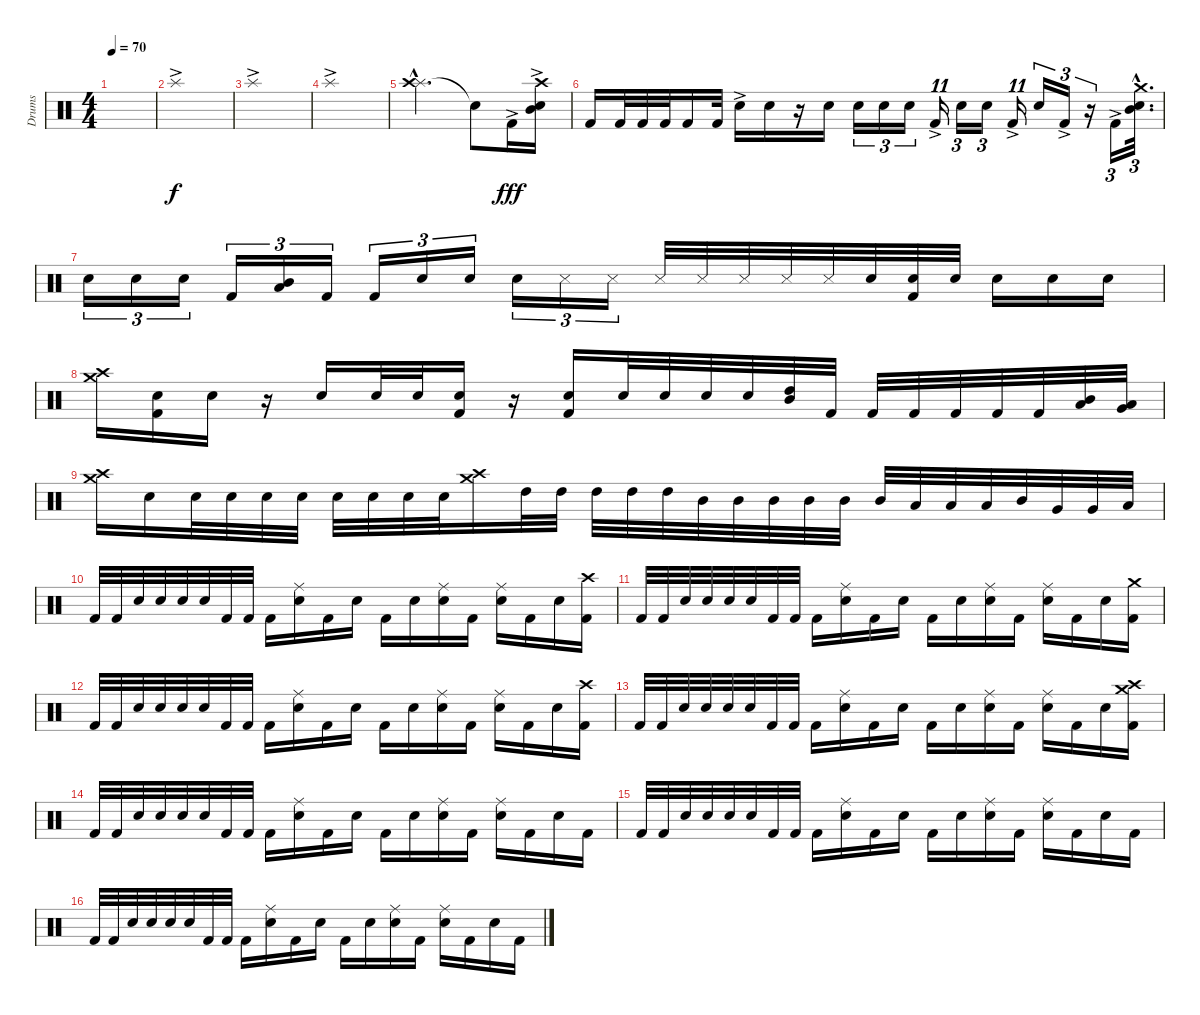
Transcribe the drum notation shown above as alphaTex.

\track ("Drums" "Drums") {instrument percussion}
\staff {score}
\articulation defaults
\ts (4 4)
\tempo 70
\clef neutral
\ks c
|
"Splash (hit)"{ac}.1 |
"Splash (hit)"{ac}.1 |
"Splash (hit)"{ac}.1 |
("Splash (hit)"{hac} "Crash high (hit)"{hac}).2{d} "Snare (hit)"{t}.8{dy f} "Kick (hit) 2"{ac}.16{dy fff} ("Crash high (hit)" "Mid Tom (hit)"{ac} "Snare (hit) 2"{ac}).16 |
"Kick (hit) 2".16 "Kick (hit) 2".32 "Kick (hit) 2".32 "Kick (hit) 2".32 "Kick (hit) 2".16 "Kick (hit) 2".32 "Snare (hit) 2"{ac}.16 "Snare (hit) 2".16 r.16 "Snare (hit) 2".16 "Snare (hit) 2".16{tu (3 2)} "Snare (hit) 2".16{tu (3 2)} "Snare (hit) 2".16{tu (3 2)} "Kick (hit) 2"{ac}.16{tu (11 8)} "Snare (hit) 2".16{tu (3 2)} "Snare (hit) 2".16{tu (3 2)} "Kick (hit) 2"{ac}.16{tu (11 8)} "Snare (hit) 2".16{tu (3 2)} "Kick (hit) 2"{ac}.16{tu (3 2)} r.16{tu (3 2)} "Kick (hit) 2"{ac}.16{tu (3 2)} ("Crash medium (hit)"{hac} "Mid Tom (hit)"{hac} "Snare (hit) 2"{hac}).32{d tu (3 2)} |
"Snare (hit) 2".16{tu (3 2)} "Snare (hit) 2".16{tu (3 2)} "Snare (hit) 2".16{tu (3 2)} "Kick (hit) 2".16{tu (3 2)} ("Low Tom (hit)" "Mid Tom (hit)").16{tu (3 2)} "Kick (hit) 2".16{tu (3 2)} "Kick (hit) 2".16{tu (3 2)} "Snare (hit) 2".16{tu (3 2)} "Snare (hit) 2".16{tu (3 2)} "Snare (hit) 2".16{tu (3 2)} "Snare (side stick) 3".16{tu (3 2)} "Snare (side stick) 3".16{tu (3 2)} "Snare (side stick) 3".32 "Snare (side stick) 3".32 "Snare (side stick) 3".32 "Snare (side stick) 3".32 "Snare (side stick) 3".32 "Snare (hit) 2".32 ("Snare (hit) 2" "Kick (hit) 2").32 "Snare (hit) 2".32 "Snare (hit) 2".16 "Snare (hit) 2".16 "Snare (hit) 2".16 |
("Crash high (hit)" "Crash medium (hit)").16 ("Snare (hit) 2" "Kick (hit) 2").16 "Snare (hit) 2".16 r.16 "Snare (hit) 2".16 "Snare (hit) 2".32 "Snare (hit) 2".32 ("Snare (hit) 2" "Kick (hit) 2").16 r.16 ("Snare (hit) 2" "Kick (hit) 2").16 "Snare (hit) 2".32 "Snare (hit) 2".32 "Snare (hit) 2".32 "Snare (hit) 2".32 ("High Tom (hit)" "Mid Tom (hit)").32 "Kick (hit) 2".32 "Kick (hit) 2".32 "Kick (hit) 2".32 "Kick (hit) 2".32 "Kick (hit) 2".32 "Kick (hit) 2".32 ("Mid Tom (hit)" "Low Tom (hit)").32 ("Very Low Tom (hit)" "Low Floor Tom (hit)").32 |
("Crash high (hit)" "Crash medium (hit)").16 "Snare (hit) 2".16 "Snare (hit) 2".32 "Snare (hit) 2".32 "Snare (hit) 2".32 "Snare (hit) 2".32 "Snare (hit) 2".32 "Snare (hit) 2".32 "Snare (hit) 2".32 "Snare (hit) 2".32 ("Crash high (hit)" "Crash medium (hit)").16 "High Tom (hit)".32 "High Tom (hit)".32 "High Tom (hit)".32 "High Tom (hit)".32 "High Tom (hit)".32 "Mid Tom (hit)".32 "Mid Tom (hit)".32 "Mid Tom (hit)".32 "Mid Tom (hit)".32 "Mid Tom (hit)".32 "Mid Tom (hit)".32 "Low Tom (hit)".32 "Low Tom (hit)".32 "Low Tom (hit)".32 "Mid Tom (hit)".32 "Very Low Tom (hit)".32 "Very Low Tom (hit)".32 "Low Floor Tom (hit)".32 |
"Kick (hit) 2".32 "Kick (hit) 2".32 "Snare (hit) 2".32 "Snare (hit) 2".32 "Snare (hit) 2".32 "Snare (hit) 2".32 "Kick (hit) 2".32 "Kick (hit) 2".32 "Kick (hit) 2".16 ("Ride (middle)" "Snare (hit) 2").16 "Kick (hit) 2".16 "Snare (hit) 2".16 "Kick (hit) 2".16 "Snare (hit) 2".16 ("Ride (middle)" "Snare (hit) 2").16 "Kick (hit) 2".16 ("Ride (middle)" "Snare (hit) 2").16 "Kick (hit) 2".16 "Snare (hit) 2".16 ("Crash high (hit)" "Kick (hit) 2").16 |
"Kick (hit) 2".32 "Kick (hit) 2".32 "Snare (hit) 2".32 "Snare (hit) 2".32 "Snare (hit) 2".32 "Snare (hit) 2".32 "Kick (hit) 2".32 "Kick (hit) 2".32 "Kick (hit) 2".16 ("Ride (middle)" "Snare (hit) 2").16 "Kick (hit) 2".16 "Snare (hit) 2".16 "Kick (hit) 2".16 "Snare (hit) 2".16 ("Ride (middle)" "Snare (hit) 2").16 "Kick (hit) 2".16 ("Ride (middle)" "Snare (hit) 2").16 "Kick (hit) 2".16 "Snare (hit) 2".16 ("Crash medium (hit)" "Kick (hit) 2").16 |
"Kick (hit) 2".32 "Kick (hit) 2".32 "Snare (hit) 2".32 "Snare (hit) 2".32 "Snare (hit) 2".32 "Snare (hit) 2".32 "Kick (hit) 2".32 "Kick (hit) 2".32 "Kick (hit) 2".16 ("Ride (middle)" "Snare (hit) 2").16 "Kick (hit) 2".16 "Snare (hit) 2".16 "Kick (hit) 2".16 "Snare (hit) 2".16 ("Ride (middle)" "Snare (hit) 2").16 "Kick (hit) 2".16 ("Ride (middle)" "Snare (hit) 2").16 "Kick (hit) 2".16 "Snare (hit) 2".16 ("Crash high (hit)" "Kick (hit) 2").16 |
"Kick (hit) 2".32 "Kick (hit) 2".32 "Snare (hit) 2".32 "Snare (hit) 2".32 "Snare (hit) 2".32 "Snare (hit) 2".32 "Kick (hit) 2".32 "Kick (hit) 2".32 "Kick (hit) 2".16 ("Ride (middle)" "Snare (hit) 2").16 "Kick (hit) 2".16 "Snare (hit) 2".16 "Kick (hit) 2".16 "Snare (hit) 2".16 ("Ride (middle)" "Snare (hit) 2").16 "Kick (hit) 2".16 ("Ride (middle)" "Snare (hit) 2").16 "Kick (hit) 2".16 "Snare (hit) 2".16 ("Crash high (hit)" "Crash medium (hit)" "Kick (hit) 2").16 |
"Kick (hit) 2".32 "Kick (hit) 2".32 "Snare (hit) 2".32 "Snare (hit) 2".32 "Snare (hit) 2".32 "Snare (hit) 2".32 "Kick (hit) 2".32 "Kick (hit) 2".32 "Kick (hit) 2".16 ("Ride (middle)" "Snare (hit) 2").16 "Kick (hit) 2".16 "Snare (hit) 2".16 "Kick (hit) 2".16 "Snare (hit) 2".16 ("Ride (middle)" "Snare (hit) 2").16 "Kick (hit) 2".16 ("Ride (middle)" "Snare (hit) 2").16 "Kick (hit) 2".16 "Snare (hit) 2".16 "Kick (hit) 2".16 |
"Kick (hit) 2".32 "Kick (hit) 2".32 "Snare (hit) 2".32 "Snare (hit) 2".32 "Snare (hit) 2".32 "Snare (hit) 2".32 "Kick (hit) 2".32 "Kick (hit) 2".32 "Kick (hit) 2".16 ("Ride (middle)" "Snare (hit) 2").16 "Kick (hit) 2".16 "Snare (hit) 2".16 "Kick (hit) 2".16 "Snare (hit) 2".16 ("Ride (middle)" "Snare (hit) 2").16 "Kick (hit) 2".16 ("Ride (middle)" "Snare (hit) 2").16 "Kick (hit) 2".16 "Snare (hit) 2".16 "Kick (hit) 2".16 |
"Kick (hit) 2".32 "Kick (hit) 2".32 "Snare (hit) 2".32 "Snare (hit) 2".32 "Snare (hit) 2".32 "Snare (hit) 2".32 "Kick (hit) 2".32 "Kick (hit) 2".32 "Kick (hit) 2".16 ("Ride (middle)" "Snare (hit) 2").16 "Kick (hit) 2".16 "Snare (hit) 2".16 "Kick (hit) 2".16 "Snare (hit) 2".16 ("Ride (middle)" "Snare (hit) 2").16 "Kick (hit) 2".16 ("Ride (middle)" "Snare (hit) 2").16 "Kick (hit) 2".16 "Snare (hit) 2".16 "Kick (hit) 2".16
